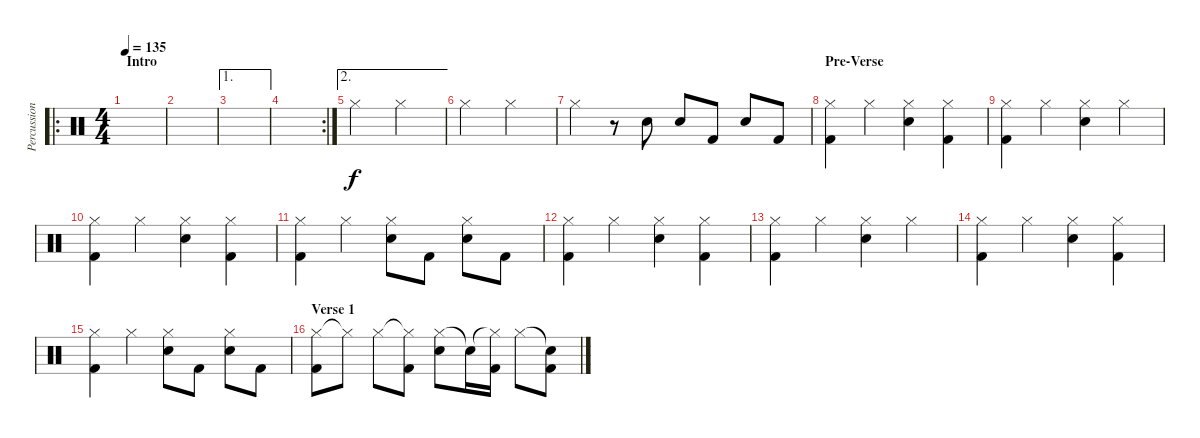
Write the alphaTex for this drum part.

\track ("Percussion" "Percussion") {instrument percussion}
\staff {score}
\articulation defaults
\ro
\ts (4 4)
\section ("" "Intro")
\tempo 135
\clef neutral
\ks c
|
|
\ae 1
|
\rc 2
|
\ae 2 "Hi-Hat (closed)".2 "Hi-Hat (closed)".2
|
"Hi-Hat (closed)".2 "Hi-Hat (closed)".2 |
"Hi-Hat (closed)".4 r.8 "Electric Snare (hit)".8 "Electric Snare (hit)".8 "Kick (hit) 2".8 "Electric Snare (hit)".8 "Kick (hit) 2".8 |
\section ("" "Pre-Verse")
("Hi-Hat (closed)" "Kick (hit) 2").4 "Hi-Hat (closed)".4 ("Hi-Hat (closed)" "Electric Snare (hit)").4 ("Hi-Hat (closed)" "Kick (hit) 2").4 |
("Hi-Hat (closed)" "Kick (hit) 2").4 "Hi-Hat (closed)".4 ("Hi-Hat (closed)" "Electric Snare (hit)").4 "Hi-Hat (closed)".4 |
("Hi-Hat (closed)" "Kick (hit) 2").4 "Hi-Hat (closed)".4 ("Hi-Hat (closed)" "Electric Snare (hit)").4 ("Hi-Hat (closed)" "Kick (hit) 2").4 |
("Hi-Hat (closed)" "Kick (hit) 2").4 "Hi-Hat (closed)".4 ("Hi-Hat (closed)" "Electric Snare (hit)").8 "Kick (hit) 2".8 ("Hi-Hat (closed)" "Electric Snare (hit)").8 "Kick (hit) 2".8 |
("Hi-Hat (closed)" "Kick (hit) 2").4 "Hi-Hat (closed)".4 ("Hi-Hat (closed)" "Electric Snare (hit)").4 ("Hi-Hat (closed)" "Kick (hit) 2").4 |
("Hi-Hat (closed)" "Kick (hit) 2").4 "Hi-Hat (closed)".4 ("Hi-Hat (closed)" "Electric Snare (hit)").4 "Hi-Hat (closed)".4 |
("Hi-Hat (closed)" "Kick (hit) 2").4 "Hi-Hat (closed)".4 ("Hi-Hat (closed)" "Electric Snare (hit)").4 ("Hi-Hat (closed)" "Kick (hit) 2").4 |
("Hi-Hat (closed)" "Kick (hit) 2").4 "Hi-Hat (closed)".4 ("Hi-Hat (closed)" "Electric Snare (hit)").8 "Kick (hit) 2".8 ("Hi-Hat (closed)" "Electric Snare (hit)").8 "Kick (hit) 2".8 |
\section ("" "Verse 1")
("Hi-Hat (closed)" "Kick (hit) 2").8 "Hi-Hat (closed)"{t}.8 "Hi-Hat (closed)".8 ("Hi-Hat (closed)"{t} "Kick (hit) 2").8 ("Hi-Hat (closed)" "Electric Snare (hit)").8 "Snare (hit)"{t}.16 ("Hi-Hat (closed)"{t} "Kick (hit) 2").16 "Hi-Hat (closed)".8 ("Snare (hit)"{t} "Kick (hit) 2").8
